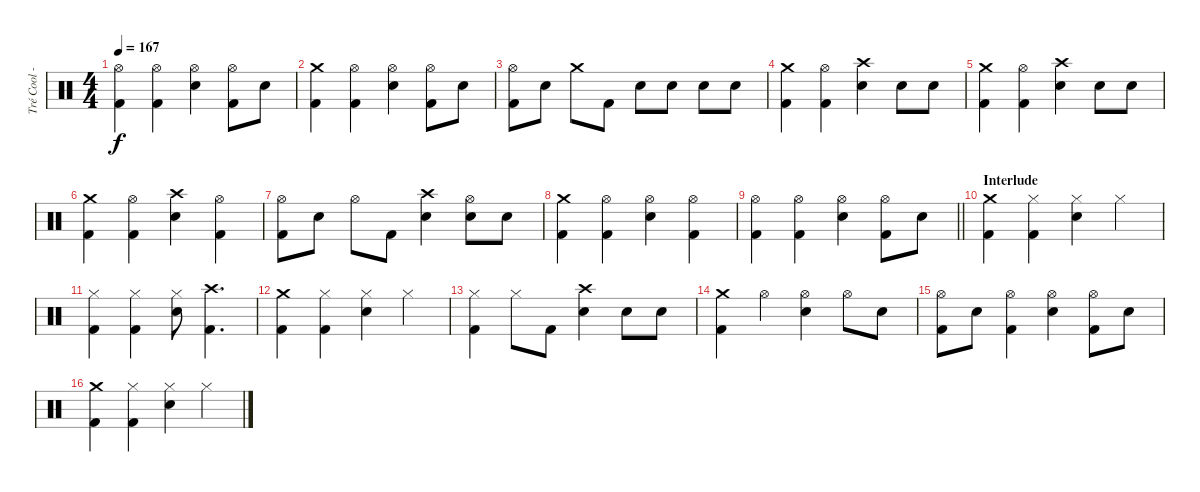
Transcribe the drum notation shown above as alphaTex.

\track ("Tré Cool - Drums" "Tré Cool -") {instrument percussion}
\staff {score}
\articulation defaults
\ts (4 4)
\tempo 167
\clef neutral
\ks c
("Hi-Hat (open)" "Kick (hit) 2").4{dy f} ("Hi-Hat (open)" "Kick (hit) 2").4 ("Hi-Hat (open)" "Electric Snare (hit)").4 ("Hi-Hat (open)" "Kick (hit) 2").8 "Electric Snare (hit)".8 |
("Crash medium (hit)" "Kick (hit) 2").4 ("Hi-Hat (open)" "Kick (hit) 2").4 ("Hi-Hat (open)" "Electric Snare (hit)").4 ("Hi-Hat (open)" "Kick (hit) 2").8 "Electric Snare (hit)".8 |
("Hi-Hat (open)" "Kick (hit) 2").8 "Electric Snare (hit)".8 "Crash medium (hit)".8 "Kick (hit) 2".8 "Electric Snare (hit)".8 "Electric Snare (hit)".8 "Electric Snare (hit)".8 "Electric Snare (hit)".8 |
("Crash medium (hit)" "Kick (hit) 2").4 ("Hi-Hat (open)" "Kick (hit) 2").4 ("Crash high (hit)" "Electric Snare (hit)").4 "Electric Snare (hit)".8 "Electric Snare (hit)".8 |
("Crash medium (hit)" "Kick (hit) 2").4 ("Hi-Hat (open)" "Kick (hit) 2").4 ("Crash high (hit)" "Electric Snare (hit)").4 "Electric Snare (hit)".8 "Electric Snare (hit)".8 |
("Crash medium (hit)" "Kick (hit) 2").4 ("Hi-Hat (open)" "Kick (hit) 2").4 ("Crash high (hit)" "Electric Snare (hit)").4 ("Hi-Hat (open)" "Kick (hit) 2").4 |
("Hi-Hat (open)" "Kick (hit) 2").8 "Electric Snare (hit)".8 "Hi-Hat (open)".8 "Kick (hit) 2".8 ("Crash high (hit)" "Electric Snare (hit)").4 ("Hi-Hat (open)" "Electric Snare (hit)").8 "Electric Snare (hit)".8 |
("Crash medium (hit)" "Kick (hit) 2").4 ("Hi-Hat (open)" "Kick (hit) 2").4 ("Hi-Hat (open)" "Electric Snare (hit)").4 ("Hi-Hat (open)" "Kick (hit) 2").4 |
\barLineRight lightlight
("Hi-Hat (open)" "Kick (hit) 2").4 ("Hi-Hat (open)" "Kick (hit) 2").4 ("Hi-Hat (open)" "Electric Snare (hit)").4 ("Hi-Hat (open)" "Kick (hit) 2").8 "Electric Snare (hit)".8 |
\section ("" "Interlude")
("Crash medium (hit)" "Kick (hit) 2").4 ("Hi-Hat (closed)" "Kick (hit) 2").4 ("Hi-Hat (closed)" "Electric Snare (hit)").4 "Hi-Hat (closed)".4 |
("Hi-Hat (closed)" "Kick (hit) 2").4 ("Hi-Hat (closed)" "Kick (hit) 2").4 ("Hi-Hat (closed)" "Electric Snare (hit)").8 ("Crash high (hit)" "Kick (hit) 2").4{d} |
("Crash medium (hit)" "Kick (hit) 2").4 ("Hi-Hat (closed)" "Kick (hit) 2").4 ("Hi-Hat (closed)" "Electric Snare (hit)").4 "Hi-Hat (closed)".4 |
("Hi-Hat (closed)" "Kick (hit) 2").4 "Hi-Hat (closed)".8 "Kick (hit) 2".8 ("Crash high (hit)" "Electric Snare (hit)").4 "Electric Snare (hit)".8 "Electric Snare (hit)".8 |
("Crash medium (hit)" "Kick (hit) 2").4 "Hi-Hat (open)".4 ("Hi-Hat (open)" "Electric Snare (hit)").4 "Hi-Hat (open)".8 "Electric Snare (hit)".8 |
("Hi-Hat (open)" "Kick (hit) 2").8 "Electric Snare (hit)".8 ("Hi-Hat (open)" "Kick (hit) 2").4 ("Hi-Hat (open)" "Electric Snare (hit)").4 ("Hi-Hat (open)" "Kick (hit) 2").8 "Electric Snare (hit)".8 |
("Crash medium (hit)" "Kick (hit) 2").4 ("Hi-Hat (closed)" "Kick (hit) 2").4 ("Hi-Hat (closed)" "Electric Snare (hit)").4 "Hi-Hat (closed)".4
